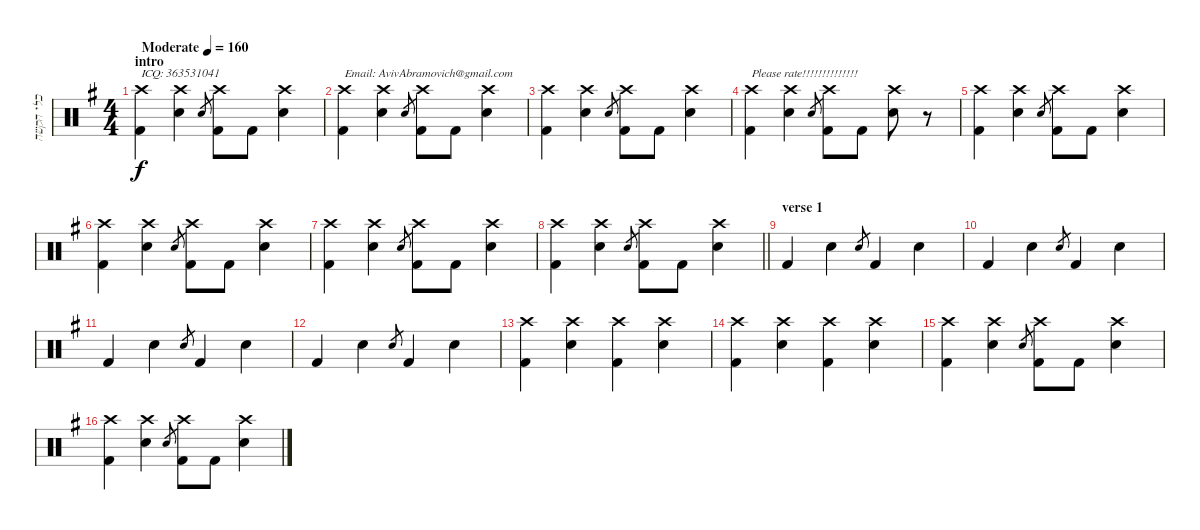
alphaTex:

\track ("כלי הקשה" "כלי הקשה") {instrument percussion bank 127}
\staff {score}
\articulation defaults
\ts (4 4)
\section ("" "intro")
\tempo (160 "Moderate")
\clef neutral
\ks eminor
("Crash high (hit)" "Kick (hit) 2").4{txt "ICQ: 363531041" dy f} ("Crash high (hit)" "Electric Snare (hit)").4 "Electric Snare (hit)".8{gr} ("Crash high (hit)" "Kick (hit) 2").8 "Kick (hit) 2".8 ("Crash high (hit)" "Electric Snare (hit)").4 |
("Crash high (hit)" "Kick (hit) 2").4{txt "Email: AvivAbramovich@gmail.com"} ("Crash high (hit)" "Electric Snare (hit)").4 "Electric Snare (hit)".8{gr} ("Crash high (hit)" "Kick (hit) 2").8 "Kick (hit) 2".8 ("Crash high (hit)" "Electric Snare (hit)").4 |
("Crash high (hit)" "Kick (hit) 2").4 ("Crash high (hit)" "Electric Snare (hit)").4 "Electric Snare (hit)".8{gr} ("Crash high (hit)" "Kick (hit) 2").8 "Kick (hit) 2".8 ("Crash high (hit)" "Electric Snare (hit)").4 |
("Crash high (hit)" "Kick (hit) 2").4{txt "Please rate!!!!!!!!!!!!!!"} ("Crash high (hit)" "Electric Snare (hit)").4 "Electric Snare (hit)".8{gr} ("Crash high (hit)" "Kick (hit) 2").8 "Kick (hit) 2".8 ("Crash high (hit)" "Electric Snare (hit)").8 r.8 |
("Crash high (hit)" "Kick (hit) 2").4 ("Crash high (hit)" "Electric Snare (hit)").4 "Electric Snare (hit)".8{gr} ("Crash high (hit)" "Kick (hit) 2").8 "Kick (hit) 2".8 ("Crash high (hit)" "Electric Snare (hit)").4 |
("Crash high (hit)" "Kick (hit) 2").4 ("Crash high (hit)" "Electric Snare (hit)").4 "Electric Snare (hit)".8{gr} ("Crash high (hit)" "Kick (hit) 2").8 "Kick (hit) 2".8 ("Crash high (hit)" "Electric Snare (hit)").4 |
("Crash high (hit)" "Kick (hit) 2").4 ("Crash high (hit)" "Electric Snare (hit)").4 "Electric Snare (hit)".8{gr} ("Crash high (hit)" "Kick (hit) 2").8 "Kick (hit) 2".8 ("Crash high (hit)" "Electric Snare (hit)").4 |
\barLineRight lightlight
("Crash high (hit)" "Kick (hit) 2").4 ("Crash high (hit)" "Electric Snare (hit)").4 "Electric Snare (hit)".8{gr} ("Crash high (hit)" "Kick (hit) 2").8 "Kick (hit) 2".8 ("Crash high (hit)" "Electric Snare (hit)").4 |
\section ("" "verse 1")
"Kick (hit) 2".4 "Electric Snare (hit)".4 "Electric Snare (hit)".8{gr} "Kick (hit) 2".4 "Electric Snare (hit)".4 |
"Kick (hit) 2".4 "Electric Snare (hit)".4 "Electric Snare (hit)".8{gr} "Kick (hit) 2".4 "Electric Snare (hit)".4 |
"Kick (hit) 2".4 "Electric Snare (hit)".4 "Electric Snare (hit)".8{gr} "Kick (hit) 2".4 "Electric Snare (hit)".4 |
"Kick (hit) 2".4 "Electric Snare (hit)".4 "Electric Snare (hit)".8{gr} "Kick (hit) 2".4 "Electric Snare (hit)".4 |
("Crash high (hit)" "Kick (hit) 2").4 ("Crash high (hit)" "Electric Snare (hit)").4 ("Crash high (hit)" "Kick (hit) 2").4 ("Crash high (hit)" "Electric Snare (hit)").4 |
("Crash high (hit)" "Kick (hit) 2").4 ("Crash high (hit)" "Electric Snare (hit)").4 ("Crash high (hit)" "Kick (hit) 2").4 ("Crash high (hit)" "Electric Snare (hit)").4 |
("Crash high (hit)" "Kick (hit) 2").4 ("Crash high (hit)" "Electric Snare (hit)").4 "Electric Snare (hit)".8{gr} ("Crash high (hit)" "Kick (hit) 2").8 "Kick (hit) 2".8 ("Crash high (hit)" "Electric Snare (hit)").4 |
("Crash high (hit)" "Kick (hit) 2").4 ("Crash high (hit)" "Electric Snare (hit)").4 "Electric Snare (hit)".8{gr} ("Crash high (hit)" "Kick (hit) 2").8 "Kick (hit) 2".8 ("Crash high (hit)" "Electric Snare (hit)").4
